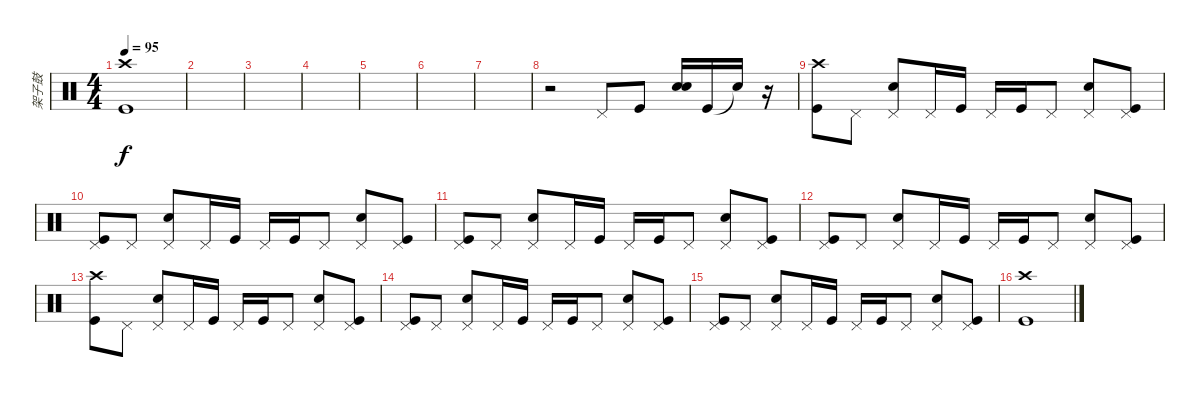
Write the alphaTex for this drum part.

\track ("架子鼓" "架子鼓") {instrument percussion}
\staff {score}
\articulation defaults
\ts (4 4)
\tempo 95
\clef neutral
\ks c
("Kick (hit)" "Crash high (hit)").1{dy f} |
|
|
|
|
|
|
r.2 "Pedal Hi-Hat (hit)".8 "Kick (hit)".8 ("Snare (hit) 2" "Snare (hit) 2").16 "Kick (hit)".16 "Snare (hit)"{t}.16 r.16 |
("Kick (hit)" "Crash high (hit)").8 "Pedal Hi-Hat (hit)".8 ("Snare (hit) 2" "Pedal Hi-Hat (hit)").8 "Pedal Hi-Hat (hit)".16 "Kick (hit)".16 "Pedal Hi-Hat (hit)".16 "Kick (hit)".16 "Pedal Hi-Hat (hit)".8 ("Snare (hit) 2" "Pedal Hi-Hat (hit)").8 ("Kick (hit)" "Pedal Hi-Hat (hit)").8 |
("Kick (hit)" "Pedal Hi-Hat (hit)").8 "Pedal Hi-Hat (hit)".8 ("Snare (hit) 2" "Pedal Hi-Hat (hit)").8 "Pedal Hi-Hat (hit)".16 "Kick (hit)".16 "Pedal Hi-Hat (hit)".16 "Kick (hit)".16 "Pedal Hi-Hat (hit)".8 ("Snare (hit) 2" "Pedal Hi-Hat (hit)").8 ("Kick (hit)" "Pedal Hi-Hat (hit)").8 |
("Kick (hit)" "Pedal Hi-Hat (hit)").8 "Pedal Hi-Hat (hit)".8 ("Snare (hit) 2" "Pedal Hi-Hat (hit)").8 "Pedal Hi-Hat (hit)".16 "Kick (hit)".16 "Pedal Hi-Hat (hit)".16 "Kick (hit)".16 "Pedal Hi-Hat (hit)".8 ("Snare (hit) 2" "Pedal Hi-Hat (hit)").8 ("Kick (hit)" "Pedal Hi-Hat (hit)").8 |
("Kick (hit)" "Pedal Hi-Hat (hit)").8 "Pedal Hi-Hat (hit)".8 ("Snare (hit) 2" "Pedal Hi-Hat (hit)").8 "Pedal Hi-Hat (hit)".16 "Kick (hit)".16 "Pedal Hi-Hat (hit)".16 "Kick (hit)".16 "Pedal Hi-Hat (hit)".8 ("Snare (hit) 2" "Pedal Hi-Hat (hit)").8 ("Kick (hit)" "Pedal Hi-Hat (hit)").8 |
("Kick (hit)" "Crash high (hit)").8 "Pedal Hi-Hat (hit)".8 ("Snare (hit) 2" "Pedal Hi-Hat (hit)").8 "Pedal Hi-Hat (hit)".16 "Kick (hit)".16 "Pedal Hi-Hat (hit)".16 "Kick (hit)".16 "Pedal Hi-Hat (hit)".8 ("Snare (hit) 2" "Pedal Hi-Hat (hit)").8 ("Kick (hit)" "Pedal Hi-Hat (hit)").8 |
("Kick (hit)" "Pedal Hi-Hat (hit)").8 "Pedal Hi-Hat (hit)".8 ("Snare (hit) 2" "Pedal Hi-Hat (hit)").8 "Pedal Hi-Hat (hit)".16 "Kick (hit)".16 "Pedal Hi-Hat (hit)".16 "Kick (hit)".16 "Pedal Hi-Hat (hit)".8 ("Snare (hit) 2" "Pedal Hi-Hat (hit)").8 ("Kick (hit)" "Pedal Hi-Hat (hit)").8 |
("Kick (hit)" "Pedal Hi-Hat (hit)").8 "Pedal Hi-Hat (hit)".8 ("Snare (hit) 2" "Pedal Hi-Hat (hit)").8 "Pedal Hi-Hat (hit)".16 "Kick (hit)".16 "Pedal Hi-Hat (hit)".16 "Kick (hit)".16 "Pedal Hi-Hat (hit)".8 ("Snare (hit) 2" "Pedal Hi-Hat (hit)").8 ("Kick (hit)" "Pedal Hi-Hat (hit)").8 |
("Kick (hit)" "Crash high (hit)").1
